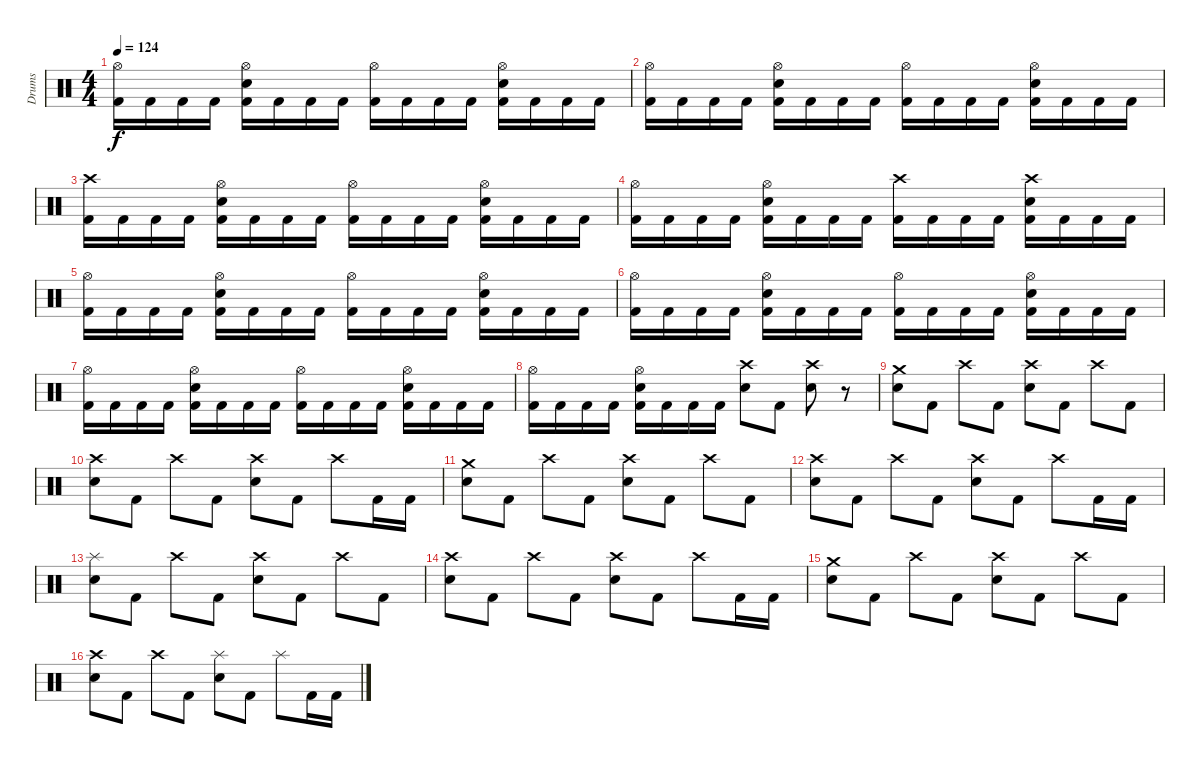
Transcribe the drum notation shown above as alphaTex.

\track ("Drums" "Drums") {instrument percussion}
\staff {score}
\articulation defaults
\ts (4 4)
\tempo 124
\clef neutral
\ks c
("Hi-Hat (open)" "Kick (hit) 2").16{dy f} "Kick (hit) 2".16 "Kick (hit) 2".16 "Kick (hit) 2".16 ("Hi-Hat (open)" "Electric Snare (hit)" "Kick (hit) 2").16 "Kick (hit) 2".16 "Kick (hit) 2".16 "Kick (hit) 2".16 ("Hi-Hat (open)" "Kick (hit) 2").16 "Kick (hit) 2".16 "Kick (hit) 2".16 "Kick (hit) 2".16 ("Hi-Hat (open)" "Electric Snare (hit)" "Kick (hit) 2").16 "Kick (hit) 2".16 "Kick (hit) 2".16 "Kick (hit) 2".16 |
("Hi-Hat (open)" "Kick (hit) 2").16 "Kick (hit) 2".16 "Kick (hit) 2".16 "Kick (hit) 2".16 ("Hi-Hat (open)" "Electric Snare (hit)" "Kick (hit) 2").16 "Kick (hit) 2".16 "Kick (hit) 2".16 "Kick (hit) 2".16 ("Hi-Hat (open)" "Kick (hit) 2").16 "Kick (hit) 2".16 "Kick (hit) 2".16 "Kick (hit) 2".16 ("Hi-Hat (open)" "Electric Snare (hit)" "Kick (hit) 2").16 "Kick (hit) 2".16 "Kick (hit) 2".16 "Kick (hit) 2".16 |
("Crash high (hit)" "Kick (hit) 2").16 "Kick (hit) 2".16 "Kick (hit) 2".16 "Kick (hit) 2".16 ("Hi-Hat (open)" "Electric Snare (hit)" "Kick (hit) 2").16 "Kick (hit) 2".16 "Kick (hit) 2".16 "Kick (hit) 2".16 ("Hi-Hat (open)" "Kick (hit) 2").16 "Kick (hit) 2".16 "Kick (hit) 2".16 "Kick (hit) 2".16 ("Hi-Hat (open)" "Electric Snare (hit)" "Kick (hit) 2").16 "Kick (hit) 2".16 "Kick (hit) 2".16 "Kick (hit) 2".16 |
("Hi-Hat (open)" "Kick (hit) 2").16 "Kick (hit) 2".16 "Kick (hit) 2".16 "Kick (hit) 2".16 ("Hi-Hat (open)" "Electric Snare (hit)" "Kick (hit) 2").16 "Kick (hit) 2".16 "Kick (hit) 2".16 "Kick (hit) 2".16 ("Crash high (hit)" "Kick (hit) 2").16 "Kick (hit) 2".16 "Kick (hit) 2".16 "Kick (hit) 2".16 ("Crash high (hit)" "Electric Snare (hit)" "Kick (hit) 2").16 "Kick (hit) 2".16 "Kick (hit) 2".16 "Kick (hit) 2".16 |
("Hi-Hat (open)" "Kick (hit) 2").16 "Kick (hit) 2".16 "Kick (hit) 2".16 "Kick (hit) 2".16 ("Hi-Hat (open)" "Electric Snare (hit)" "Kick (hit) 2").16 "Kick (hit) 2".16 "Kick (hit) 2".16 "Kick (hit) 2".16 ("Hi-Hat (open)" "Kick (hit) 2").16 "Kick (hit) 2".16 "Kick (hit) 2".16 "Kick (hit) 2".16 ("Hi-Hat (open)" "Electric Snare (hit)" "Kick (hit) 2").16 "Kick (hit) 2".16 "Kick (hit) 2".16 "Kick (hit) 2".16 |
("Hi-Hat (open)" "Kick (hit) 2").16 "Kick (hit) 2".16 "Kick (hit) 2".16 "Kick (hit) 2".16 ("Hi-Hat (open)" "Electric Snare (hit)" "Kick (hit) 2").16 "Kick (hit) 2".16 "Kick (hit) 2".16 "Kick (hit) 2".16 ("Hi-Hat (open)" "Kick (hit) 2").16 "Kick (hit) 2".16 "Kick (hit) 2".16 "Kick (hit) 2".16 ("Hi-Hat (open)" "Electric Snare (hit)" "Kick (hit) 2").16 "Kick (hit) 2".16 "Kick (hit) 2".16 "Kick (hit) 2".16 |
("Hi-Hat (open)" "Kick (hit) 2").16 "Kick (hit) 2".16 "Kick (hit) 2".16 "Kick (hit) 2".16 ("Hi-Hat (open)" "Electric Snare (hit)" "Kick (hit) 2").16 "Kick (hit) 2".16 "Kick (hit) 2".16 "Kick (hit) 2".16 ("Hi-Hat (open)" "Kick (hit) 2").16 "Kick (hit) 2".16 "Kick (hit) 2".16 "Kick (hit) 2".16 ("Hi-Hat (open)" "Electric Snare (hit)" "Kick (hit) 2").16 "Kick (hit) 2".16 "Kick (hit) 2".16 "Kick (hit) 2".16 |
("Hi-Hat (open)" "Kick (hit) 2").16 "Kick (hit) 2".16 "Kick (hit) 2".16 "Kick (hit) 2".16 ("Hi-Hat (open)" "Electric Snare (hit)" "Kick (hit) 2").16 "Kick (hit) 2".16 "Kick (hit) 2".16 "Kick (hit) 2".16 ("Crash high (hit)" "Electric Snare (hit)").8 "Kick (hit) 2".8 ("Crash high (hit)" "Electric Snare (hit)").8 r.8 |
("Crash medium (hit)" "Electric Snare (hit)").8 "Kick (hit) 2".8 "Crash high (hit)".8 "Kick (hit) 2".8 ("Crash high (hit)" "Electric Snare (hit)").8 "Kick (hit) 2".8 "Crash high (hit)".8 "Kick (hit) 2".8 |
("Crash high (hit)" "Electric Snare (hit)").8 "Kick (hit) 2".8 "Crash high (hit)".8 "Kick (hit) 2".8 ("Crash high (hit)" "Electric Snare (hit)").8 "Kick (hit) 2".8 "Crash high (hit)".8 "Kick (hit) 2".16 "Kick (hit) 2".16 |
("Crash medium (hit)" "Electric Snare (hit)").8 "Kick (hit) 2".8 "Crash high (hit)".8 "Kick (hit) 2".8 ("Crash high (hit)" "Electric Snare (hit)").8 "Kick (hit) 2".8 "Crash high (hit)".8 "Kick (hit) 2".8 |
("Crash high (hit)" "Electric Snare (hit)").8 "Kick (hit) 2".8 "Crash high (hit)".8 "Kick (hit) 2".8 ("Crash high (hit)" "Electric Snare (hit)").8 "Kick (hit) 2".8 "Crash high (hit)".8 "Kick (hit) 2".16 "Kick (hit) 2".16 |
("Splash (hit)" "Electric Snare (hit)").8 "Kick (hit) 2".8 "Crash high (hit)".8 "Kick (hit) 2".8 ("Crash high (hit)" "Electric Snare (hit)").8 "Kick (hit) 2".8 "Crash high (hit)".8 "Kick (hit) 2".8 |
("Crash high (hit)" "Electric Snare (hit)").8 "Kick (hit) 2".8 "Crash high (hit)".8 "Kick (hit) 2".8 ("Crash high (hit)" "Electric Snare (hit)").8 "Kick (hit) 2".8 "Crash high (hit)".8 "Kick (hit) 2".16 "Kick (hit) 2".16 |
("Crash medium (hit)" "Electric Snare (hit)").8 "Kick (hit) 2".8 "Crash high (hit)".8 "Kick (hit) 2".8 ("Crash high (hit)" "Electric Snare (hit)").8 "Kick (hit) 2".8 "Crash high (hit)".8 "Kick (hit) 2".8 |
("Crash high (hit)" "Electric Snare (hit)").8 "Kick (hit) 2".8 "Crash high (hit)".8 "Kick (hit) 2".8 ("Splash (hit)" "Electric Snare (hit)").8 "Kick (hit) 2".8 "Splash (hit)".8 "Kick (hit) 2".16 "Kick (hit) 2".16
